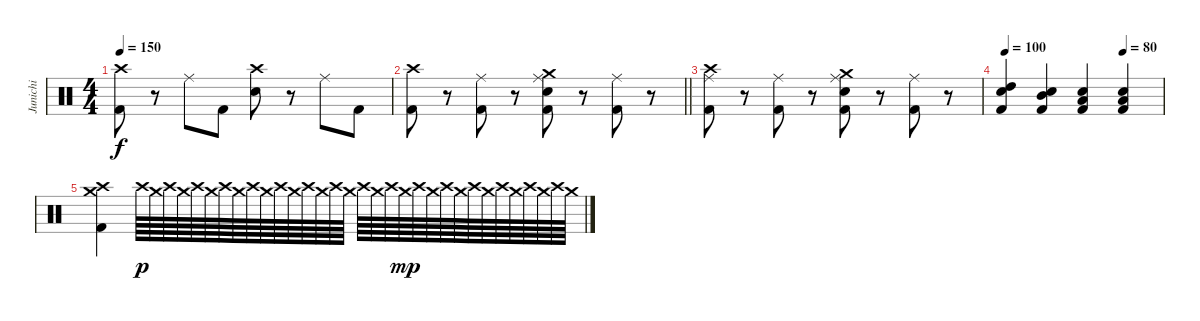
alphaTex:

\track ("Junichi" "Junichi") {instrument percussion}
\staff {score}
\articulation defaults
\ts (4 4)
\tempo 150
\clef neutral
\ks c
("Crash high (hit)" "Kick (hit) 2").8{dy f} r.8 "Ride (middle)".8 "Kick (hit) 2".8 ("Crash high (hit)" "Electric Snare (hit)").8 r.8 "Ride (middle)".8 "Kick (hit) 2".8 |
\barLineRight lightlight
("Crash high (hit)" "Kick (hit) 2").8 r.8 ("Ride (middle)" "Kick (hit) 2").8 r.8 ("Crash medium (hit)" "Ride (middle)" "Electric Snare (hit)" "Kick (hit) 2").8 r.8 ("Ride (middle)" "Kick (hit) 2").8 r.8 |
("Crash high (hit)" "Ride (middle)" "Kick (hit) 2").8 r.8 ("Ride (middle)" "Kick (hit) 2").8 r.8 ("Crash medium (hit)" "Ride (middle)" "Electric Snare (hit)" "Kick (hit) 2").8 r.8 ("Ride (middle)" "Kick (hit) 2").8 r.8 |
\tempo 100
\tempo (80 0.75)
("High Tom (hit)" "Electric Snare (hit)" "Kick (hit) 2").4 ("Mid Tom (hit)" "Electric Snare (hit)" "Kick (hit) 2").4 ("Low Tom (hit)" "Electric Snare (hit)" "Kick (hit) 2").4 ("Low Tom (hit)" "Electric Snare (hit)" "Kick (hit) 2").4 |
("Crash high (hit)" "Crash medium (hit)" "Kick (hit) 2").4 "Crash high (hit)".64{dy p} "Crash medium (hit)".64 "Crash high (hit)".64 "Crash medium (hit)".64 "Crash high (hit)".64 "Crash medium (hit)".64 "Crash high (hit)".64 "Crash medium (hit)".64 "Crash high (hit)".64 "Crash medium (hit)".64 "Crash high (hit)".64 "Crash medium (hit)".64 "Crash high (hit)".64 "Crash medium (hit)".64 "Crash high (hit)".64 "Crash medium (hit)".64 "Crash high (hit)".64 "Crash medium (hit)".64 "Crash high (hit)".64 "Crash medium (hit)".64{dy mp} "Crash high (hit)".64 "Crash medium (hit)".64 "Crash high (hit)".64 "Crash medium (hit)".64 "Crash high (hit)".64 "Crash medium (hit)".64 "Crash high (hit)".64 "Crash medium (hit)".64 "Crash high (hit)".64 "Crash medium (hit)".64 "Crash high (hit)".64 "Crash medium (hit)".64
